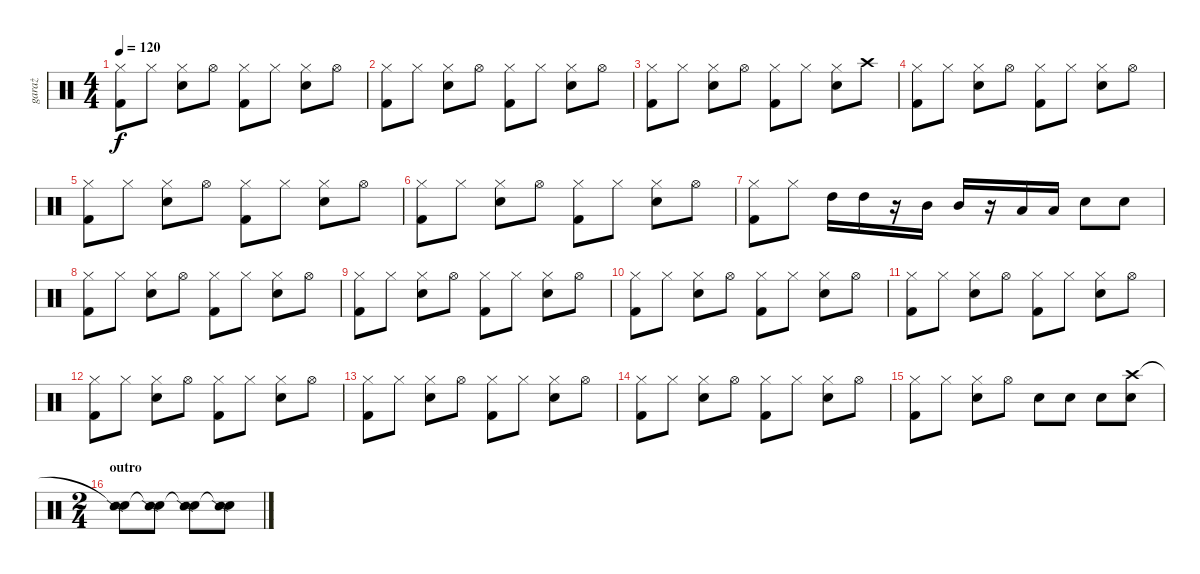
\track ("garaż" "garaż") {instrument percussion}
\staff {score}
\articulation defaults
\ts (4 4)
\tempo 120
\clef neutral
\ks c
("Hi-Hat (closed)" "Kick (hit) 2").8{dy f} "Hi-Hat (closed)".8 ("Hi-Hat (closed)" "Snare (hit) 2").8 "Hi-Hat (open)".8 ("Hi-Hat (closed)" "Kick (hit) 2").8 "Hi-Hat (closed)".8 ("Hi-Hat (closed)" "Snare (hit) 2").8 "Hi-Hat (open)".8 |
("Hi-Hat (closed)" "Kick (hit) 2").8 "Hi-Hat (closed)".8 ("Hi-Hat (closed)" "Snare (hit) 2").8 "Hi-Hat (open)".8 ("Hi-Hat (closed)" "Kick (hit) 2").8 "Hi-Hat (closed)".8 ("Hi-Hat (closed)" "Snare (hit) 2").8 "Hi-Hat (open)".8 |
("Hi-Hat (closed)" "Kick (hit) 2").8 "Hi-Hat (closed)".8 ("Hi-Hat (closed)" "Snare (hit) 2").8 "Hi-Hat (open)".8 ("Hi-Hat (closed)" "Kick (hit) 2").8 "Hi-Hat (closed)".8 ("Hi-Hat (closed)" "Snare (hit) 2").8 "Crash high (hit)".8 |
("Hi-Hat (closed)" "Kick (hit) 2").8 "Hi-Hat (closed)".8 ("Hi-Hat (closed)" "Snare (hit) 2").8 "Hi-Hat (open)".8 ("Hi-Hat (closed)" "Kick (hit) 2").8 "Hi-Hat (closed)".8 ("Hi-Hat (closed)" "Snare (hit) 2").8 "Hi-Hat (open)".8 |
("Hi-Hat (closed)" "Kick (hit) 2").8 "Hi-Hat (closed)".8 ("Hi-Hat (closed)" "Snare (hit) 2").8 "Hi-Hat (open)".8 ("Hi-Hat (closed)" "Kick (hit) 2").8 "Hi-Hat (closed)".8 ("Hi-Hat (closed)" "Snare (hit) 2").8 "Hi-Hat (open)".8 |
("Hi-Hat (closed)" "Kick (hit) 2").8 "Hi-Hat (closed)".8 ("Hi-Hat (closed)" "Snare (hit) 2").8 "Hi-Hat (open)".8 ("Hi-Hat (closed)" "Kick (hit) 2").8 "Hi-Hat (closed)".8 ("Hi-Hat (closed)" "Snare (hit) 2").8 "Hi-Hat (open)".8 |
("Hi-Hat (closed)" "Kick (hit) 2").8 "Hi-Hat (closed)".8 "High Tom (hit)".16 "High Tom (hit)".16 r.16 "Mid Tom (hit)".16 "Mid Tom (hit)".16 r.16 "Low Tom (hit)".16 "Low Tom (hit)".16 "Snare (hit) 2".8 "Snare (hit) 2".8 |
("Hi-Hat (closed)" "Kick (hit) 2").8 "Hi-Hat (closed)".8 ("Hi-Hat (closed)" "Snare (hit) 2").8 "Hi-Hat (open)".8 ("Hi-Hat (closed)" "Kick (hit) 2").8 "Hi-Hat (closed)".8 ("Hi-Hat (closed)" "Snare (hit) 2").8 "Hi-Hat (open)".8 |
("Hi-Hat (closed)" "Kick (hit) 2").8 "Hi-Hat (closed)".8 ("Hi-Hat (closed)" "Snare (hit) 2").8 "Hi-Hat (open)".8 ("Hi-Hat (closed)" "Kick (hit) 2").8 "Hi-Hat (closed)".8 ("Hi-Hat (closed)" "Snare (hit) 2").8 "Hi-Hat (open)".8 |
("Hi-Hat (closed)" "Kick (hit) 2").8 "Hi-Hat (closed)".8 ("Hi-Hat (closed)" "Snare (hit) 2").8 "Hi-Hat (open)".8 ("Hi-Hat (closed)" "Kick (hit) 2").8 "Hi-Hat (closed)".8 ("Hi-Hat (closed)" "Snare (hit) 2").8 "Hi-Hat (open)".8 |
("Hi-Hat (closed)" "Kick (hit) 2").8 "Hi-Hat (closed)".8 ("Hi-Hat (closed)" "Snare (hit) 2").8 "Hi-Hat (open)".8 ("Hi-Hat (closed)" "Kick (hit) 2").8 "Hi-Hat (closed)".8 ("Hi-Hat (closed)" "Snare (hit) 2").8 "Hi-Hat (open)".8 |
("Hi-Hat (closed)" "Kick (hit) 2").8 "Hi-Hat (closed)".8 ("Hi-Hat (closed)" "Snare (hit) 2").8 "Hi-Hat (open)".8 ("Hi-Hat (closed)" "Kick (hit) 2").8 "Hi-Hat (closed)".8 ("Hi-Hat (closed)" "Snare (hit) 2").8 "Hi-Hat (open)".8 |
("Hi-Hat (closed)" "Kick (hit) 2").8 "Hi-Hat (closed)".8 ("Hi-Hat (closed)" "Snare (hit) 2").8 "Hi-Hat (open)".8 ("Hi-Hat (closed)" "Kick (hit) 2").8 "Hi-Hat (closed)".8 ("Hi-Hat (closed)" "Snare (hit) 2").8 "Hi-Hat (open)".8 |
("Hi-Hat (closed)" "Kick (hit) 2").8 "Hi-Hat (closed)".8 ("Hi-Hat (closed)" "Snare (hit) 2").8 "Hi-Hat (open)".8 ("Hi-Hat (closed)" "Kick (hit) 2").8 "Hi-Hat (closed)".8 ("Hi-Hat (closed)" "Snare (hit) 2").8 "Hi-Hat (open)".8 |
("Hi-Hat (closed)" "Kick (hit) 2").8 "Hi-Hat (closed)".8 ("Hi-Hat (closed)" "Snare (hit) 2").8 "Hi-Hat (open)".8 "Snare (hit) 2".8 "Snare (hit) 2".8 "Snare (hit) 2".8 ("Crash high (hit)" "Snare (hit) 2").8 |
\ts (2 4)
\section ("" "outro")
("Snare (hit)"{t} "Snare (side stick) 2").8 ("Snare (hit)"{t} "Snare (side stick) 2").8 ("Snare (hit)"{t} "Snare (side stick) 2").8 ("Snare (hit)"{t} "Snare (side stick) 2").8
